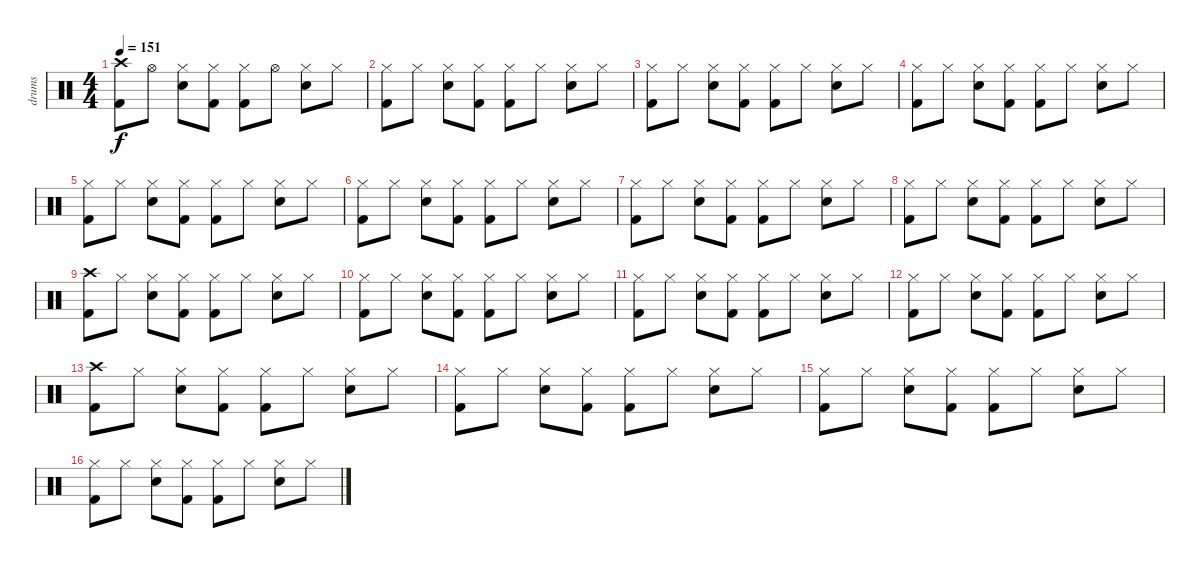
\track ("drums" "drums") {instrument percussion}
\staff {score}
\articulation defaults
\ts (4 4)
\tempo 151
\clef neutral
\ks c
("Crash high (hit)" "Kick (hit) 2").8{dy f} "Hi-Hat (open)".8 ("Hi-Hat (closed)" "Electric Snare (hit)").8 ("Hi-Hat (closed)" "Kick (hit) 2").8 ("Hi-Hat (closed)" "Kick (hit) 2").8 "Hi-Hat (open)".8 ("Hi-Hat (closed)" "Electric Snare (hit)").8 "Hi-Hat (closed)".8 |
("Hi-Hat (closed)" "Kick (hit) 2").8 "Hi-Hat (closed)".8 ("Hi-Hat (closed)" "Electric Snare (hit)").8 ("Hi-Hat (closed)" "Kick (hit) 2").8 ("Hi-Hat (closed)" "Kick (hit) 2").8 "Hi-Hat (closed)".8 ("Hi-Hat (closed)" "Electric Snare (hit)").8 "Hi-Hat (closed)".8 |
("Hi-Hat (closed)" "Kick (hit) 2").8 "Hi-Hat (closed)".8 ("Hi-Hat (closed)" "Electric Snare (hit)").8 ("Hi-Hat (closed)" "Kick (hit) 2").8 ("Hi-Hat (closed)" "Kick (hit) 2").8 "Hi-Hat (closed)".8 ("Hi-Hat (closed)" "Electric Snare (hit)").8 "Hi-Hat (closed)".8 |
("Hi-Hat (closed)" "Kick (hit) 2").8 "Hi-Hat (closed)".8 ("Hi-Hat (closed)" "Electric Snare (hit)").8 ("Hi-Hat (closed)" "Kick (hit) 2").8 ("Hi-Hat (closed)" "Kick (hit) 2").8 "Hi-Hat (closed)".8 ("Hi-Hat (closed)" "Electric Snare (hit)").8 "Hi-Hat (closed)".8 |
("Hi-Hat (closed)" "Kick (hit) 2").8 "Hi-Hat (closed)".8 ("Hi-Hat (closed)" "Electric Snare (hit)").8 ("Hi-Hat (closed)" "Kick (hit) 2").8 ("Hi-Hat (closed)" "Kick (hit) 2").8 "Hi-Hat (closed)".8 ("Hi-Hat (closed)" "Electric Snare (hit)").8 "Hi-Hat (closed)".8 |
("Hi-Hat (closed)" "Kick (hit) 2").8 "Hi-Hat (closed)".8 ("Hi-Hat (closed)" "Electric Snare (hit)").8 ("Hi-Hat (closed)" "Kick (hit) 2").8 ("Hi-Hat (closed)" "Kick (hit) 2").8 "Hi-Hat (closed)".8 ("Hi-Hat (closed)" "Electric Snare (hit)").8 "Hi-Hat (closed)".8 |
("Hi-Hat (closed)" "Kick (hit) 2").8 "Hi-Hat (closed)".8 ("Hi-Hat (closed)" "Electric Snare (hit)").8 ("Hi-Hat (closed)" "Kick (hit) 2").8 ("Hi-Hat (closed)" "Kick (hit) 2").8 "Hi-Hat (closed)".8 ("Hi-Hat (closed)" "Electric Snare (hit)").8 "Hi-Hat (closed)".8 |
("Hi-Hat (closed)" "Kick (hit) 2").8 "Hi-Hat (closed)".8 ("Hi-Hat (closed)" "Electric Snare (hit)").8 ("Hi-Hat (closed)" "Kick (hit) 2").8 ("Hi-Hat (closed)" "Kick (hit) 2").8 "Hi-Hat (closed)".8 ("Hi-Hat (closed)" "Electric Snare (hit)").8 "Hi-Hat (closed)".8 |
("Crash high (hit)" "Kick (hit) 2").8 "Hi-Hat (closed)".8 ("Hi-Hat (closed)" "Electric Snare (hit)").8 ("Hi-Hat (closed)" "Kick (hit) 2").8 ("Hi-Hat (closed)" "Kick (hit) 2").8 "Hi-Hat (closed)".8 ("Hi-Hat (closed)" "Electric Snare (hit)").8 "Hi-Hat (closed)".8 |
("Hi-Hat (closed)" "Kick (hit) 2").8 "Hi-Hat (closed)".8 ("Hi-Hat (closed)" "Electric Snare (hit)").8 ("Hi-Hat (closed)" "Kick (hit) 2").8 ("Hi-Hat (closed)" "Kick (hit) 2").8 "Hi-Hat (closed)".8 ("Hi-Hat (closed)" "Electric Snare (hit)").8 "Hi-Hat (closed)".8 |
("Hi-Hat (closed)" "Kick (hit) 2").8 "Hi-Hat (closed)".8 ("Hi-Hat (closed)" "Electric Snare (hit)").8 ("Hi-Hat (closed)" "Kick (hit) 2").8 ("Hi-Hat (closed)" "Kick (hit) 2").8 "Hi-Hat (closed)".8 ("Hi-Hat (closed)" "Electric Snare (hit)").8 "Hi-Hat (closed)".8 |
("Hi-Hat (closed)" "Kick (hit) 2").8 "Hi-Hat (closed)".8 ("Hi-Hat (closed)" "Electric Snare (hit)").8 ("Hi-Hat (closed)" "Kick (hit) 2").8 ("Hi-Hat (closed)" "Kick (hit) 2").8 "Hi-Hat (closed)".8 ("Hi-Hat (closed)" "Electric Snare (hit)").8 "Hi-Hat (closed)".8 |
("Crash high (hit)" "Kick (hit) 2").8 "Hi-Hat (closed)".8 ("Hi-Hat (closed)" "Electric Snare (hit)").8 ("Hi-Hat (closed)" "Kick (hit) 2").8 ("Hi-Hat (closed)" "Kick (hit) 2").8 "Hi-Hat (closed)".8 ("Hi-Hat (closed)" "Electric Snare (hit)").8 "Hi-Hat (closed)".8 |
("Hi-Hat (closed)" "Kick (hit) 2").8 "Hi-Hat (closed)".8 ("Hi-Hat (closed)" "Electric Snare (hit)").8 ("Hi-Hat (closed)" "Kick (hit) 2").8 ("Hi-Hat (closed)" "Kick (hit) 2").8 "Hi-Hat (closed)".8 ("Hi-Hat (closed)" "Electric Snare (hit)").8 "Hi-Hat (closed)".8 |
("Hi-Hat (closed)" "Kick (hit) 2").8 "Hi-Hat (closed)".8 ("Hi-Hat (closed)" "Electric Snare (hit)").8 ("Hi-Hat (closed)" "Kick (hit) 2").8 ("Hi-Hat (closed)" "Kick (hit) 2").8 "Hi-Hat (closed)".8 ("Hi-Hat (closed)" "Electric Snare (hit)").8 "Hi-Hat (closed)".8 |
("Hi-Hat (closed)" "Kick (hit) 2").8 "Hi-Hat (closed)".8 ("Hi-Hat (closed)" "Electric Snare (hit)").8 ("Hi-Hat (closed)" "Kick (hit) 2").8 ("Hi-Hat (closed)" "Kick (hit) 2").8 "Hi-Hat (closed)".8 ("Hi-Hat (closed)" "Electric Snare (hit)").8 "Hi-Hat (closed)".8
